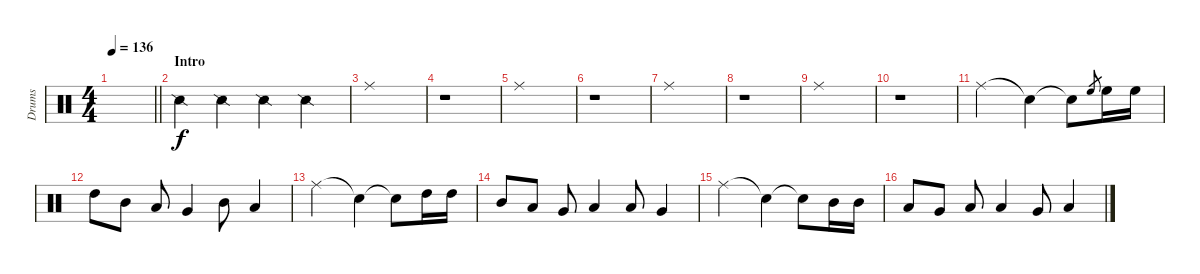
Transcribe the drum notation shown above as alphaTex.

\track ("Drums" "Drums") {instrument percussion}
\staff {score}
\articulation defaults
\ts (4 4)
\tempo 136
\clef neutral
\barLineRight lightlight
\ks c
|
\section ("" "Intro")
"Snare (side stick) 2".4 "Snare (side stick) 2".4 "Snare (side stick) 2".4 "Snare (side stick) 2".4 |
"Ride (middle)".1 |
r.1 |
"Ride (middle)".1 |
r.1 |
"Ride (middle)".1 |
r.1 |
"Ride (middle)".1 |
r.1 |
"Ride (middle)".2 "Snare (hit)"{t}.4 "Snare (hit)"{t}.8 "High Floor Tom (hit)".8{gr} "High Floor Tom (hit)".16 "High Floor Tom (hit)".16 |
"High Tom (hit)".8 "Mid Tom (hit)".8 "Low Tom (hit)".8 "Very Low Tom (hit)".4 "Mid Tom (hit)".8 "Low Tom (hit)".4 |
"Ride (middle)".2 "Snare (hit)"{t}.4 "Snare (hit)"{t}.8 "High Tom (hit)".16 "High Tom (hit)".16 |
"Mid Tom (hit)".8 "Low Tom (hit)".8 "Very Low Tom (hit)".8 "Low Floor Tom (hit)".4 "Low Tom (hit)".8 "Very Low Tom (hit)".4 |
"Ride (middle)".2 "Snare (hit)"{t}.4 "Snare (hit)"{t}.8 "Mid Tom (hit)".16 "Mid Tom (hit)".16 |
"Low Tom (hit)".8 "Very Low Tom (hit)".8 "Low Floor Tom (hit)".8 "Low Floor Tom (hit)".4 "Very Low Tom (hit)".8 "Low Floor Tom (hit)".4
